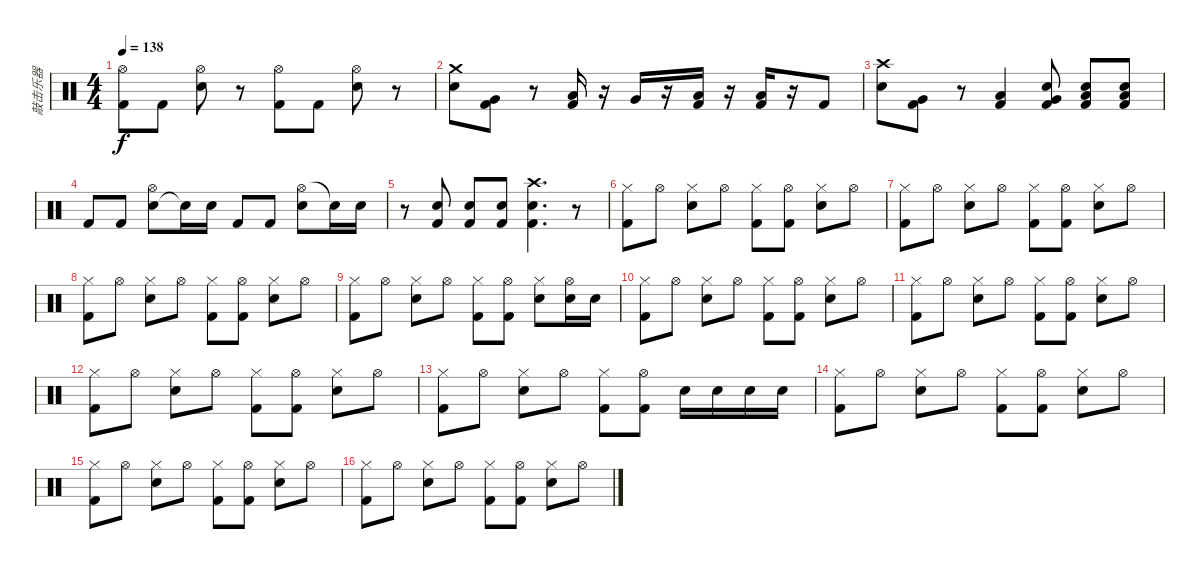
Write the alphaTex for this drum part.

\track ("敲击乐器" "敲击乐器") {instrument percussion}
\staff {score}
\articulation defaults
\ts (4 4)
\tempo 138
\clef neutral
\ks c
("Hi-Hat (open)" "Kick (hit) 2").8{dy f} "Kick (hit) 2".8 ("Hi-Hat (open)" "Electric Snare (hit)").8 r.8 ("Hi-Hat (open)" "Kick (hit) 2").8 "Kick (hit) 2".8 ("Hi-Hat (open)" "Electric Snare (hit)").8 r.8 |
("Crash medium (hit)" "Electric Snare (hit)").8 ("Very Low Tom (hit)" "Kick (hit) 2").8 r.8 ("Low Floor Tom (hit)" "Kick (hit) 2").16 r.16 "Very Low Tom (hit)".16 r.16 ("Low Floor Tom (hit)" "Kick (hit) 2").16 r.16 ("Low Floor Tom (hit)" "Kick (hit) 2").16 r.16 "Kick (hit) 2".8 |
("Crash high (hit)" "Electric Snare (hit)").8 ("Very Low Tom (hit)" "Kick (hit) 2").8 r.8 ("Low Floor Tom (hit)" "Kick (hit) 2").4 ("Electric Snare (hit)" "Very Low Tom (hit)" "Kick (hit) 2").8 ("Electric Snare (hit)" "Low Floor Tom (hit)" "Kick (hit) 2").8 ("Electric Snare (hit)" "Low Floor Tom (hit)" "Kick (hit) 2").8 |
"Kick (hit) 2".8 "Kick (hit) 2".8 ("Electric Snare (hit)" "Hi-Hat (open)").8 "Snare (hit)"{t}.16 "Electric Snare (hit)".16 "Kick (hit) 2".8 "Kick (hit) 2".8 ("Hi-Hat (open)" "Electric Snare (hit)").8 "Electric Snare (hit)"{t}.16 "Electric Snare (hit)".16 |
r.8 ("Electric Snare (hit)" "Kick (hit) 2").8 ("Electric Snare (hit)" "Kick (hit) 2").8 ("Electric Snare (hit)" "Kick (hit) 2").8 ("Crash high (hit)" "Electric Snare (hit)" "Kick (hit) 2").4{d} r.8 |
("Hi-Hat (closed)" "Kick (hit) 2").8 "Hi-Hat (open)".8 ("Hi-Hat (closed)" "Electric Snare (hit)").8 "Hi-Hat (open)".8 ("Hi-Hat (closed)" "Kick (hit) 2").8 ("Hi-Hat (open)" "Kick (hit) 2").8 ("Hi-Hat (closed)" "Electric Snare (hit)").8 "Hi-Hat (open)".8 |
("Hi-Hat (closed)" "Kick (hit) 2").8 "Hi-Hat (open)".8 ("Hi-Hat (closed)" "Electric Snare (hit)").8 "Hi-Hat (open)".8 ("Hi-Hat (closed)" "Kick (hit) 2").8 ("Hi-Hat (open)" "Kick (hit) 2").8 ("Hi-Hat (closed)" "Electric Snare (hit)").8 "Hi-Hat (open)".8 |
("Hi-Hat (closed)" "Kick (hit) 2").8 "Hi-Hat (open)".8 ("Hi-Hat (closed)" "Electric Snare (hit)").8 "Hi-Hat (open)".8 ("Hi-Hat (closed)" "Kick (hit) 2").8 ("Hi-Hat (open)" "Kick (hit) 2").8 ("Hi-Hat (closed)" "Electric Snare (hit)").8 "Hi-Hat (open)".8 |
("Hi-Hat (closed)" "Kick (hit) 2").8 "Hi-Hat (open)".8 ("Hi-Hat (closed)" "Electric Snare (hit)").8 "Hi-Hat (open)".8 ("Hi-Hat (closed)" "Kick (hit) 2").8 ("Hi-Hat (open)" "Kick (hit) 2").8 ("Hi-Hat (closed)" "Electric Snare (hit)").8 ("Hi-Hat (open)" "Electric Snare (hit)").16 "Electric Snare (hit)".16 |
("Hi-Hat (closed)" "Kick (hit) 2").8 "Hi-Hat (open)".8 ("Hi-Hat (closed)" "Electric Snare (hit)").8 "Hi-Hat (open)".8 ("Hi-Hat (closed)" "Kick (hit) 2").8 ("Hi-Hat (open)" "Kick (hit) 2").8 ("Hi-Hat (closed)" "Electric Snare (hit)").8 "Hi-Hat (open)".8 |
("Hi-Hat (closed)" "Kick (hit) 2").8 "Hi-Hat (open)".8 ("Hi-Hat (closed)" "Electric Snare (hit)").8 "Hi-Hat (open)".8 ("Hi-Hat (closed)" "Kick (hit) 2").8 ("Hi-Hat (open)" "Kick (hit) 2").8 ("Hi-Hat (closed)" "Electric Snare (hit)").8 "Hi-Hat (open)".8 |
("Hi-Hat (closed)" "Kick (hit) 2").8 "Hi-Hat (open)".8 ("Hi-Hat (closed)" "Electric Snare (hit)").8 "Hi-Hat (open)".8 ("Hi-Hat (closed)" "Kick (hit) 2").8 ("Hi-Hat (open)" "Kick (hit) 2").8 ("Hi-Hat (closed)" "Electric Snare (hit)").8 "Hi-Hat (open)".8 |
("Hi-Hat (closed)" "Kick (hit) 2").8 "Hi-Hat (open)".8 ("Hi-Hat (closed)" "Electric Snare (hit)").8 "Hi-Hat (open)".8 ("Hi-Hat (closed)" "Kick (hit) 2").8 ("Hi-Hat (open)" "Kick (hit) 2").8 "Electric Snare (hit)".16 "Electric Snare (hit)".16 "Electric Snare (hit)".16 "Electric Snare (hit)".16 |
("Hi-Hat (closed)" "Kick (hit) 2").8 "Hi-Hat (open)".8 ("Hi-Hat (closed)" "Electric Snare (hit)").8 "Hi-Hat (open)".8 ("Hi-Hat (closed)" "Kick (hit) 2").8 ("Hi-Hat (open)" "Kick (hit) 2").8 ("Hi-Hat (closed)" "Electric Snare (hit)").8 "Hi-Hat (open)".8 |
("Hi-Hat (closed)" "Kick (hit) 2").8 "Hi-Hat (open)".8 ("Hi-Hat (closed)" "Electric Snare (hit)").8 "Hi-Hat (open)".8 ("Hi-Hat (closed)" "Kick (hit) 2").8 ("Hi-Hat (open)" "Kick (hit) 2").8 ("Hi-Hat (closed)" "Electric Snare (hit)").8 "Hi-Hat (open)".8 |
("Hi-Hat (closed)" "Kick (hit) 2").8 "Hi-Hat (open)".8 ("Hi-Hat (closed)" "Electric Snare (hit)").8 "Hi-Hat (open)".8 ("Hi-Hat (closed)" "Kick (hit) 2").8 ("Hi-Hat (open)" "Kick (hit) 2").8 ("Hi-Hat (closed)" "Electric Snare (hit)").8 "Hi-Hat (open)".8
